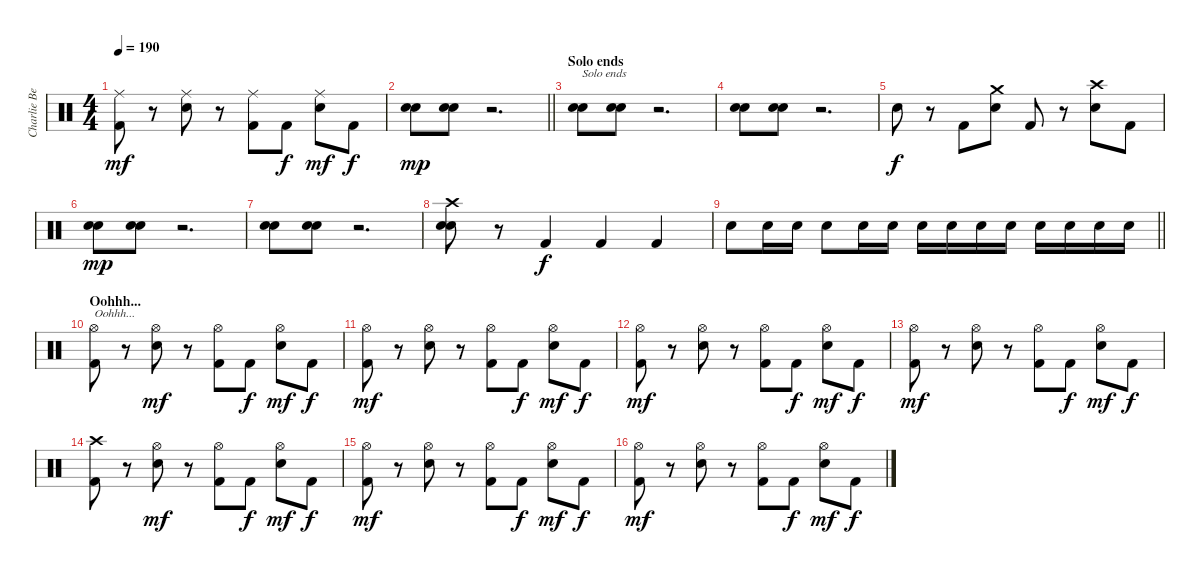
\track ("Charlie Benante" "Charlie Be") {instrument percussion}
\staff {score}
\articulation defaults
\ts (4 4)
\tempo 190
\clef neutral
\ks c
("Ride (middle)" "Kick (hit) 2").8{dy mf} r.8 ("Ride (middle)" "Electric Snare (hit)").8 r.8 ("Ride (middle)" "Kick (hit) 2").8 "Kick (hit) 2".8{dy f} ("Ride (middle)" "Electric Snare (hit)").8{dy mf} "Kick (hit) 2".8{dy f} |
\barLineRight lightlight
("Snare (hit) 2" "Electric Snare (hit)").8{dy mp} ("Snare (hit) 2" "Electric Snare (hit)").8 r.2{d} |
\section ("" "Solo ends")
("Snare (hit) 2" "Electric Snare (hit)").8{txt "Solo ends"} ("Snare (hit) 2" "Electric Snare (hit)").8 r.2{d} |
("Snare (hit) 2" "Electric Snare (hit)").8 ("Snare (hit) 2" "Electric Snare (hit)").8 r.2{d} |
"Electric Snare (hit)".8{dy f} r.8 "Kick (hit) 2".8 ("Crash medium (hit)" "Electric Snare (hit)").8 "Kick (hit) 2".8 r.8 ("Crash high (hit)" "Electric Snare (hit)").8 "Kick (hit) 2".8 |
("Snare (hit) 2" "Electric Snare (hit)").8{dy mp} ("Snare (hit) 2" "Electric Snare (hit)").8 r.2{d} |
("Snare (hit) 2" "Electric Snare (hit)").8 ("Snare (hit) 2" "Electric Snare (hit)").8 r.2{d} |
("Crash high (hit)" "Snare (hit) 2" "Electric Snare (hit)").8 r.8 "Kick (hit) 2".4{dy f} "Kick (hit) 2".4 "Kick (hit) 2".4 |
\barLineRight lightlight "Electric Snare (hit)".8 "Snare (hit) 2".16 "Electric Snare (hit)".16 "Electric Snare (hit)".8 "Snare (hit) 2".16 "Electric Snare (hit)".16 "Snare (hit) 2".16 "Electric Snare (hit)".16 "Electric Snare (hit)".16 "Electric Snare (hit)".16 "Snare (hit) 2".16 "Electric Snare (hit)".16 "Electric Snare (hit)".16 "Electric Snare (hit)".16
|
\section ("" "Oohhh...")
("Hi-Hat (open)" "Kick (hit) 2").8{txt "Oohhh..."} r.8 ("Hi-Hat (open)" "Electric Snare (hit)").8{dy mf} r.8 ("Hi-Hat (open)" "Kick (hit) 2").8 "Kick (hit) 2".8{dy f} ("Hi-Hat (open)" "Electric Snare (hit)").8{dy mf} "Kick (hit) 2".8{dy f} |
("Hi-Hat (open)" "Kick (hit) 2").8{dy mf} r.8 ("Hi-Hat (open)" "Electric Snare (hit)").8 r.8 ("Hi-Hat (open)" "Kick (hit) 2").8 "Kick (hit) 2".8{dy f} ("Hi-Hat (open)" "Electric Snare (hit)").8{dy mf} "Kick (hit) 2".8{dy f} |
("Hi-Hat (open)" "Kick (hit) 2").8{dy mf} r.8 ("Hi-Hat (open)" "Electric Snare (hit)").8 r.8 ("Hi-Hat (open)" "Kick (hit) 2").8 "Kick (hit) 2".8{dy f} ("Hi-Hat (open)" "Electric Snare (hit)").8{dy mf} "Kick (hit) 2".8{dy f} |
("Hi-Hat (open)" "Kick (hit) 2").8{dy mf} r.8 ("Hi-Hat (open)" "Electric Snare (hit)").8 r.8 ("Hi-Hat (open)" "Kick (hit) 2").8 "Kick (hit) 2".8{dy f} ("Hi-Hat (open)" "Electric Snare (hit)").8{dy mf} "Kick (hit) 2".8{dy f} |
("Crash high (hit)" "Kick (hit) 2").8 r.8 ("Hi-Hat (open)" "Electric Snare (hit)").8{dy mf} r.8 ("Hi-Hat (open)" "Kick (hit) 2").8 "Kick (hit) 2".8{dy f} ("Hi-Hat (open)" "Electric Snare (hit)").8{dy mf} "Kick (hit) 2".8{dy f} |
("Hi-Hat (open)" "Kick (hit) 2").8{dy mf} r.8 ("Hi-Hat (open)" "Electric Snare (hit)").8 r.8 ("Hi-Hat (open)" "Kick (hit) 2").8 "Kick (hit) 2".8{dy f} ("Hi-Hat (open)" "Electric Snare (hit)").8{dy mf} "Kick (hit) 2".8{dy f} |
("Hi-Hat (open)" "Kick (hit) 2").8{dy mf} r.8 ("Hi-Hat (open)" "Electric Snare (hit)").8 r.8 ("Hi-Hat (open)" "Kick (hit) 2").8 "Kick (hit) 2".8{dy f} ("Hi-Hat (open)" "Electric Snare (hit)").8{dy mf} "Kick (hit) 2".8{dy f}
